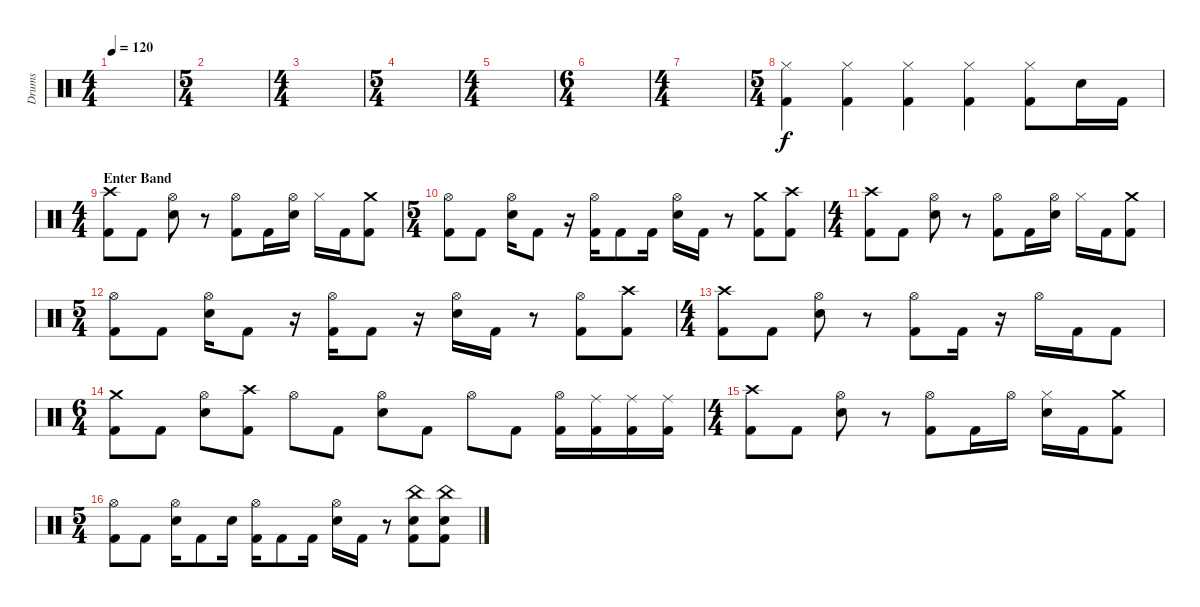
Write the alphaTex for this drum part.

\track ("Drums" "Drums") {instrument percussion}
\staff {score}
\articulation defaults
\ts (4 4)
\tempo 120
\clef neutral
\ks c
|
\ts (5 4)
|
\ts (4 4)
|
\ts (5 4)
|
\ts (4 4)
|
\ts (6 4)
|
\ts (4 4)
|
\ts (5 4)
("Hi-Hat (closed)" "Kick (hit) 2").4 ("Hi-Hat (closed)" "Kick (hit) 2").4 ("Hi-Hat (closed)" "Kick (hit) 2").4 ("Hi-Hat (closed)" "Kick (hit) 2").4 ("Hi-Hat (closed)" "Kick (hit) 2").8 "Electric Snare (hit)".16 "Kick (hit) 2".16 |
\ts (4 4)
\section ("" "Enter Band")
("Crash high (hit)" "Kick (hit) 2").8 "Kick (hit) 2".8 ("Hi-Hat (open)" "Electric Snare (hit)").8 r.8 ("Hi-Hat (open)" "Kick (hit) 2").8 "Kick (hit) 2".16 ("Hi-Hat (open)" "Electric Snare (hit)").16 "Hi-Hat (closed)".16 "Kick (hit) 2".16 ("Crash medium (hit)" "Kick (hit) 2").8 |
\ts (5 4)
("Hi-Hat (open)" "Kick (hit) 2").8 "Kick (hit) 2".8 ("Hi-Hat (open)" "Electric Snare (hit)").16 "Kick (hit) 2".8 r.16 ("Hi-Hat (open)" "Kick (hit) 2").16 "Kick (hit) 2".8 "Kick (hit) 2".16 ("Hi-Hat (open)" "Electric Snare (hit)").16 "Kick (hit) 2".16 r.8 ("Crash medium (hit)" "Kick (hit) 2").8 ("Crash high (hit)" "Kick (hit) 2").8 |
\ts (4 4)
("Crash high (hit)" "Kick (hit) 2").8 "Kick (hit) 2".8 ("Hi-Hat (open)" "Electric Snare (hit)").8 r.8 ("Hi-Hat (open)" "Kick (hit) 2").8 "Kick (hit) 2".16 ("Hi-Hat (open)" "Electric Snare (hit)").16 "Hi-Hat (closed)".16 "Kick (hit) 2".16 ("Crash medium (hit)" "Kick (hit) 2").8 |
\ts (5 4)
("Hi-Hat (open)" "Kick (hit) 2").8 "Kick (hit) 2".8 ("Hi-Hat (open)" "Electric Snare (hit)").16 "Kick (hit) 2".8 r.16 ("Hi-Hat (open)" "Kick (hit) 2").16 "Kick (hit) 2".8 r.16 ("Hi-Hat (open)" "Electric Snare (hit)").16 "Kick (hit) 2".16 r.8 ("Hi-Hat (open)" "Kick (hit) 2").8 ("Crash high (hit)" "Kick (hit) 2").8 |
\ts (4 4)
("Crash high (hit)" "Kick (hit) 2").8 "Kick (hit) 2".8 ("Hi-Hat (open)" "Electric Snare (hit)").8 r.8 ("Hi-Hat (open)" "Kick (hit) 2").8 "Kick (hit) 2".16 r.16 "Hi-Hat (open)".16 "Kick (hit) 2".16 "Kick (hit) 2".8 |
\ts (6 4)
("Crash medium (hit)" "Kick (hit) 2").8 "Kick (hit) 2".8 ("Hi-Hat (open)" "Electric Snare (hit)").8 ("Crash high (hit)" "Kick (hit) 2").8 "Hi-Hat (open)".8 "Kick (hit) 2".8 ("Hi-Hat (open)" "Electric Snare (hit)").8 "Kick (hit) 2".8 "Hi-Hat (open)".8 "Kick (hit) 2".8 ("Hi-Hat (open)" "Kick (hit) 2").16 ("Ride (middle)" "Kick (hit) 2").16 ("Ride (middle)" "Kick (hit) 2").16 ("Ride (middle)" "Kick (hit) 2").16 |
\ts (4 4)
("Crash high (hit)" "Kick (hit) 2").8 "Kick (hit) 2".8 ("Hi-Hat (open)" "Electric Snare (hit)").8 r.8 ("Hi-Hat (open)" "Kick (hit) 2").8 "Kick (hit) 2".16 "Hi-Hat (open)".16 ("Hi-Hat (closed)" "Electric Snare (hit)").16 "Kick (hit) 2".16 ("Crash medium (hit)" "Kick (hit) 2").8 |
\ts (5 4)
("Hi-Hat (open)" "Kick (hit) 2").8 "Kick (hit) 2".8 ("Hi-Hat (open)" "Electric Snare (hit)").16 "Kick (hit) 2".8 "Electric Snare (hit)".16 ("Hi-Hat (open)" "Kick (hit) 2").16 "Kick (hit) 2".8 "Kick (hit) 2".16 ("Hi-Hat (open)" "Electric Snare (hit)").16 "Kick (hit) 2".16 r.8 ("China (hit)" "Electric Snare (hit)" "Kick (hit) 2").8 ("China (hit)" "Electric Snare (hit)" "Kick (hit) 2").8
